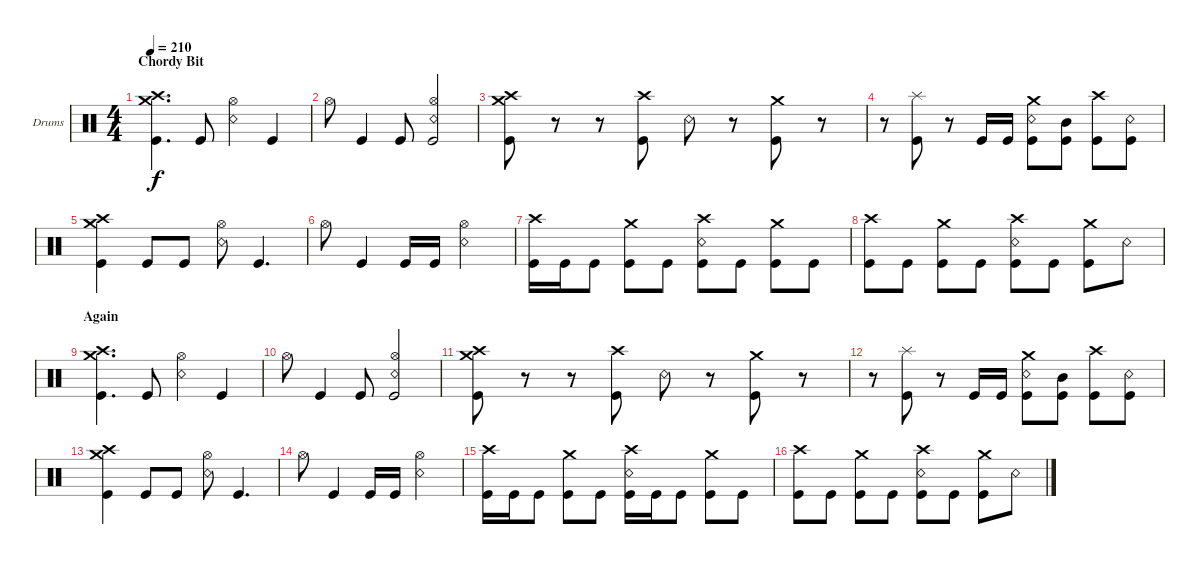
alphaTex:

\defaultSystemsLayout 4
\bracketExtendMode groupsimilarinstruments
\firstSystemTrackNameOrientation horizontal
\otherSystemsTrackNameOrientation horizontal
\track ("Drums" "Drums") {instrument percussion}
\staff {score}
\articulation defaults
\ts (4 4)
\section ("" "Chordy Bit")
\tempo 210
\clef neutral
\ks c
("Crash high (hit)" "Crash medium (hit)" "Kick (hit)").4{d dy f} "Kick (hit)".8 ("Hi-Hat (open)" "Snare (rim shot)").4 "Kick (hit)".4 |
"Hi-Hat (open)".8 "Kick (hit)".4 "Kick (hit)".8 ("Hi-Hat (open)" "Snare (rim shot)" "Kick (hit)").2 |
("Kick (hit)" "Crash high (hit)" "Crash medium (hit)").8 r.8 r.8 ("Kick (hit)" "Crash high (hit)").8 "Snare (rim shot)".8 r.8 ("Kick (hit)" "Crash medium (hit)").8 r.8 |
r.8 ("Kick (hit)" "Splash (hit)").8 r.8 "Kick (hit)".16 "Kick (hit)".16 ("Kick (hit)" "Crash medium (hit)" "Snare (rim shot)").8 ("Kick (hit)" "Mid Tom (hit)").8 ("Kick (hit)" "Crash high (hit)").8 ("Kick (hit)" "Snare (rim shot)").8 |
("Crash high (hit)" "Crash medium (hit)" "Kick (hit)").4 "Kick (hit)".8 "Kick (hit)".8 ("Hi-Hat (open)" "Snare (rim shot)").8 "Kick (hit)".4{d} |
"Hi-Hat (open)".8 "Kick (hit)".4 "Kick (hit)".16 "Kick (hit)".16 ("Hi-Hat (open)" "Snare (rim shot)").2 |
("Crash high (hit)" "Kick (hit)").16 "Kick (hit)".16 "Kick (hit)".8 ("Crash medium (hit)" "Kick (hit)").8 "Kick (hit)".8 ("Crash high (hit)" "Snare (rim shot)" "Kick (hit)").8 "Kick (hit)".8 ("Crash medium (hit)" "Kick (hit)").8 "Kick (hit)".8 |
("Crash high (hit)" "Kick (hit)").8 "Kick (hit)".8 ("Crash medium (hit)" "Kick (hit)").8 "Kick (hit)".8 ("Crash high (hit)" "Snare (rim shot)" "Kick (hit)").8 "Kick (hit)".8 ("Crash medium (hit)" "Kick (hit)").8 "Snare (rim shot)".8 |
\section ("" "Again")
("Crash high (hit)" "Crash medium (hit)" "Kick (hit)").4{d} "Kick (hit)".8 ("Hi-Hat (open)" "Snare (rim shot)").4 "Kick (hit)".4 |
"Hi-Hat (open)".8 "Kick (hit)".4 "Kick (hit)".8 ("Hi-Hat (open)" "Snare (rim shot)" "Kick (hit)").2 |
("Kick (hit)" "Crash high (hit)" "Crash medium (hit)").8 r.8 r.8 ("Kick (hit)" "Crash high (hit)").8 "Snare (rim shot)".8 r.8 ("Kick (hit)" "Crash medium (hit)").8 r.8 |
r.8 ("Kick (hit)" "Splash (hit)").8 r.8 "Kick (hit)".16 "Kick (hit)".16 ("Kick (hit)" "Crash medium (hit)" "Snare (rim shot)").8 ("Kick (hit)" "Mid Tom (hit)").8 ("Kick (hit)" "Crash high (hit)").8 ("Kick (hit)" "Snare (rim shot)").8 |
("Crash high (hit)" "Crash medium (hit)" "Kick (hit)").4 "Kick (hit)".8 "Kick (hit)".8 ("Hi-Hat (open)" "Snare (rim shot)").8 "Kick (hit)".4{d} |
"Hi-Hat (open)".8 "Kick (hit)".4 "Kick (hit)".16 "Kick (hit)".16 ("Hi-Hat (open)" "Snare (rim shot)").2 |
("Crash high (hit)" "Kick (hit)").16 "Kick (hit)".16 "Kick (hit)".8 ("Crash medium (hit)" "Kick (hit)").8 "Kick (hit)".8 ("Crash high (hit)" "Snare (rim shot)" "Kick (hit)").16 "Kick (hit)".16 "Kick (hit)".8 ("Crash medium (hit)" "Kick (hit)").8 "Kick (hit)".8 |
("Crash high (hit)" "Kick (hit)").8 "Kick (hit)".8 ("Crash medium (hit)" "Kick (hit)").8 "Kick (hit)".8 ("Crash high (hit)" "Snare (rim shot)" "Kick (hit)").8 "Kick (hit)".8 ("Crash medium (hit)" "Kick (hit)").8 "Snare (rim shot)".8
